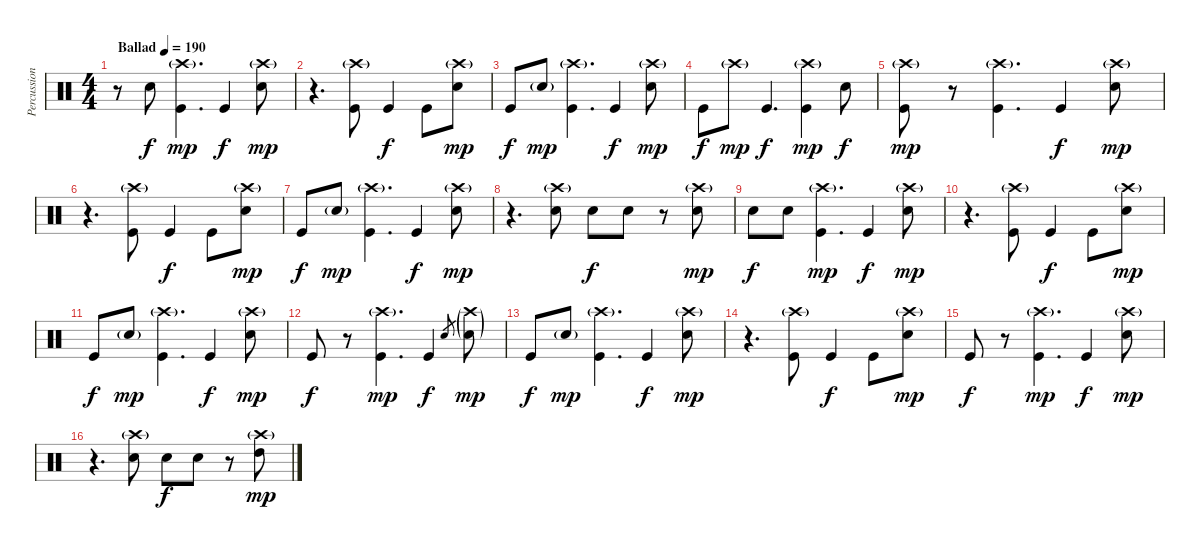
\track ("Percussion" "Percussion") {instrument percussion}
\staff {score}
\articulation defaults
\ts (4 4)
\tempo (190 "Ballad")
\clef neutral
\ks c
r.8{dy f} "Electric Snare (hit)".8 ("Kick (hit)" "Crash high (hit)"{g}).4{d dy mp} "Kick (hit)".4{dy f} ("Electric Snare (hit)" "Crash high (hit)"{g}).8{dy mp} |
r.4{d} ("Kick (hit)" "Crash high (hit)"{g}).8 "Kick (hit)".4{dy f} "Kick (hit)".8 ("Electric Snare (hit)" "Crash high (hit)"{g}).8{dy mp} |
"Kick (hit)".8{dy f} "Electric Snare (hit)"{g}.8{dy mp} ("Kick (hit)" "Crash high (hit)"{g}).4{d} "Kick (hit)".4{dy f} ("Electric Snare (hit)" "Crash high (hit)"{g}).8{dy mp} |
"Kick (hit)".8{dy f} "Crash high (hit)"{g}.8{dy mp} "Kick (hit)".4{d dy f} ("Kick (hit)" "Crash high (hit)"{g}).4{dy mp} "Electric Snare (hit)".8{dy f} |
("Kick (hit)" "Crash high (hit)"{g}).8{dy mp} r.8 ("Kick (hit)" "Crash high (hit)"{g}).4{d} "Kick (hit)".4{dy f} ("Electric Snare (hit)" "Crash high (hit)"{g}).8{dy mp} |
r.4{d} ("Kick (hit)" "Crash high (hit)"{g}).8 "Kick (hit)".4{dy f} "Kick (hit)".8 ("Electric Snare (hit)" "Crash high (hit)"{g}).8{dy mp} |
"Kick (hit)".8{dy f} "Electric Snare (hit)"{g}.8{dy mp} ("Kick (hit)" "Crash high (hit)"{g}).4{d} "Kick (hit)".4{dy f} ("Electric Snare (hit)" "Crash high (hit)"{g}).8{dy mp} |
r.4{d} ("Electric Snare (hit)" "Crash high (hit)"{g}).8 "Electric Snare (hit)".8{dy f} "Electric Snare (hit)".8 r.8 ("Electric Snare (hit)" "Crash high (hit)"{g}).8{dy mp} |
"Electric Snare (hit)".8{dy f} "Electric Snare (hit)".8 ("Kick (hit)" "Crash high (hit)"{g}).4{d dy mp} "Kick (hit)".4{dy f} ("Electric Snare (hit)" "Crash high (hit)"{g}).8{dy mp} |
r.4{d} ("Kick (hit)" "Crash high (hit)"{g}).8 "Kick (hit)".4{dy f} "Kick (hit)".8 ("Electric Snare (hit)" "Crash high (hit)"{g}).8{dy mp} |
"Kick (hit)".8{dy f} "Electric Snare (hit)"{g}.8{dy mp} ("Kick (hit)" "Crash high (hit)"{g}).4{d} "Kick (hit)".4{dy f} ("Electric Snare (hit)" "Crash high (hit)"{g}).8{dy mp} |
"Kick (hit)".8{dy f} r.8 ("Kick (hit)" "Crash high (hit)"{g}).4{d dy mp} "Kick (hit)".4{dy f} "Electric Snare (hit)".8{gr} ("Electric Snare (hit)"{g} "Crash high (hit)"{g}).8{dy mp} |
"Kick (hit)".8{dy f} "Electric Snare (hit)"{g}.8{dy mp} ("Kick (hit)" "Crash high (hit)"{g}).4{d} "Kick (hit)".4{dy f} ("Electric Snare (hit)" "Crash high (hit)"{g}).8{dy mp} |
r.4{d} ("Kick (hit)" "Crash high (hit)"{g}).8 "Kick (hit)".4{dy f} "Kick (hit)".8 ("Electric Snare (hit)" "Crash high (hit)"{g}).8{dy mp} |
"Kick (hit)".8{dy f} r.8 ("Kick (hit)" "Crash high (hit)"{g}).4{d dy mp} "Kick (hit)".4{dy f} ("Electric Snare (hit)" "Crash high (hit)"{g}).8{dy mp} |
r.4{d} ("Electric Snare (hit)" "Crash high (hit)"{g}).8 "Electric Snare (hit)".8{dy f} "Electric Snare (hit)".8 r.8 ("High Tom (hit)" "Crash high (hit)"{g}).8{dy mp}
